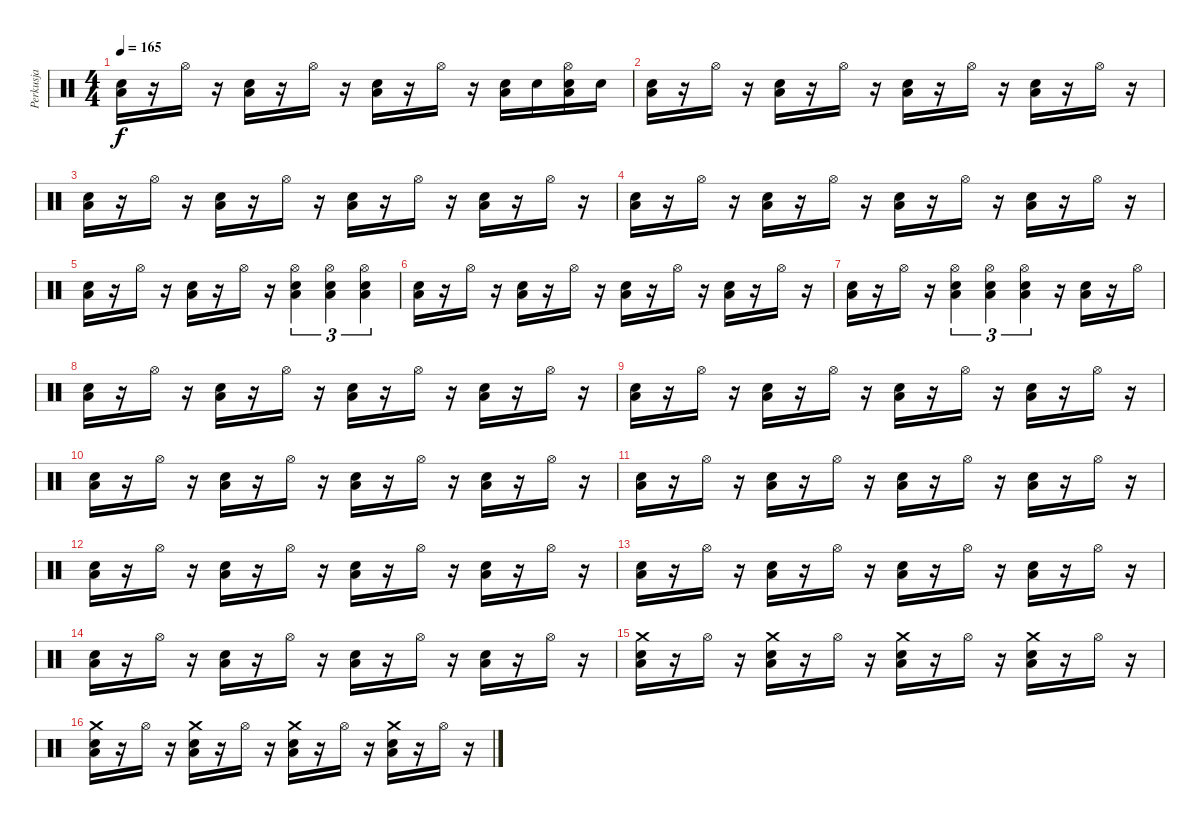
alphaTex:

\track ("Perkusja" "Perkusja") {instrument percussion}
\staff {score}
\articulation defaults
\ts (4 4)
\tempo 165
\clef neutral
\ks c
("Snare (hit) 2" "Low Tom (hit)").16{dy f} r.16 "Hi-Hat (open)".16 r.16 ("Snare (hit) 2" "Low Tom (hit)").16 r.16 "Hi-Hat (open)".16 r.16 ("Snare (hit) 2" "Low Tom (hit)").16 r.16 "Hi-Hat (open)".16 r.16 ("Snare (hit) 2" "Low Tom (hit)").16 "Snare (hit) 2".16 ("Snare (hit) 2" "Low Tom (hit)" "Hi-Hat (open)").16 "Snare (hit) 2".16 |
("Snare (hit) 2" "Low Tom (hit)").16 r.16 "Hi-Hat (open)".16 r.16 ("Snare (hit) 2" "Low Tom (hit)").16 r.16 "Hi-Hat (open)".16 r.16 ("Snare (hit) 2" "Low Tom (hit)").16 r.16 "Hi-Hat (open)".16 r.16 ("Snare (hit) 2" "Low Tom (hit)").16 r.16 "Hi-Hat (open)".16 r.16 |
("Snare (hit) 2" "Low Tom (hit)").16 r.16 "Hi-Hat (open)".16 r.16 ("Snare (hit) 2" "Low Tom (hit)").16 r.16 "Hi-Hat (open)".16 r.16 ("Snare (hit) 2" "Low Tom (hit)").16 r.16 "Hi-Hat (open)".16 r.16 ("Snare (hit) 2" "Low Tom (hit)").16 r.16 "Hi-Hat (open)".16 r.16 |
("Snare (hit) 2" "Low Tom (hit)").16 r.16 "Hi-Hat (open)".16 r.16 ("Snare (hit) 2" "Low Tom (hit)").16 r.16 "Hi-Hat (open)".16 r.16 ("Snare (hit) 2" "Low Tom (hit)").16 r.16 "Hi-Hat (open)".16 r.16 ("Snare (hit) 2" "Low Tom (hit)").16 r.16 "Hi-Hat (open)".16 r.16 |
("Snare (hit) 2" "Low Tom (hit)").16 r.16 "Hi-Hat (open)".16 r.16 ("Snare (hit) 2" "Low Tom (hit)").16 r.16 "Hi-Hat (open)".16 r.16 ("Snare (hit) 2" "Low Tom (hit)" "Hi-Hat (open)").4{tu (3 2)} ("Snare (hit) 2" "Low Tom (hit)" "Hi-Hat (open)").4{tu (3 2)} ("Snare (hit) 2" "Low Tom (hit)" "Hi-Hat (open)").4{tu (3 2)} |
("Snare (hit) 2" "Low Tom (hit)").16 r.16 "Hi-Hat (open)".16 r.16 ("Snare (hit) 2" "Low Tom (hit)").16 r.16 "Hi-Hat (open)".16 r.16 ("Snare (hit) 2" "Low Tom (hit)").16 r.16 "Hi-Hat (open)".16 r.16 ("Snare (hit) 2" "Low Tom (hit)").16 r.16 "Hi-Hat (open)".16 r.16 |
("Snare (hit) 2" "Low Tom (hit)").16 r.16 "Hi-Hat (open)".16 r.16 ("Snare (hit) 2" "Low Tom (hit)" "Hi-Hat (open)").4{tu (3 2)} ("Snare (hit) 2" "Low Tom (hit)" "Hi-Hat (open)").4{tu (3 2)} ("Snare (hit) 2" "Low Tom (hit)" "Hi-Hat (open)").4{tu (3 2)} r.16 ("Snare (hit) 2" "Low Tom (hit)").16 r.16 "Hi-Hat (open)".16 |
("Snare (hit) 2" "Low Tom (hit)").16 r.16 "Hi-Hat (open)".16 r.16 ("Snare (hit) 2" "Low Tom (hit)").16 r.16 "Hi-Hat (open)".16 r.16 ("Snare (hit) 2" "Low Tom (hit)").16 r.16 "Hi-Hat (open)".16 r.16 ("Snare (hit) 2" "Low Tom (hit)").16 r.16 "Hi-Hat (open)".16 r.16 |
("Snare (hit) 2" "Low Tom (hit)").16 r.16 "Hi-Hat (open)".16 r.16 ("Snare (hit) 2" "Low Tom (hit)").16 r.16 "Hi-Hat (open)".16 r.16 ("Snare (hit) 2" "Low Tom (hit)").16 r.16 "Hi-Hat (open)".16 r.16 ("Snare (hit) 2" "Low Tom (hit)").16 r.16 "Hi-Hat (open)".16 r.16 |
("Snare (hit) 2" "Low Tom (hit)").16 r.16 "Hi-Hat (open)".16 r.16 ("Snare (hit) 2" "Low Tom (hit)").16 r.16 "Hi-Hat (open)".16 r.16 ("Snare (hit) 2" "Low Tom (hit)").16 r.16 "Hi-Hat (open)".16 r.16 ("Snare (hit) 2" "Low Tom (hit)").16 r.16 "Hi-Hat (open)".16 r.16 |
("Snare (hit) 2" "Low Tom (hit)").16 r.16 "Hi-Hat (open)".16 r.16 ("Snare (hit) 2" "Low Tom (hit)").16 r.16 "Hi-Hat (open)".16 r.16 ("Snare (hit) 2" "Low Tom (hit)").16 r.16 "Hi-Hat (open)".16 r.16 ("Snare (hit) 2" "Low Tom (hit)").16 r.16 "Hi-Hat (open)".16 r.16 |
("Snare (hit) 2" "Low Tom (hit)").16 r.16 "Hi-Hat (open)".16 r.16 ("Snare (hit) 2" "Low Tom (hit)").16 r.16 "Hi-Hat (open)".16 r.16 ("Snare (hit) 2" "Low Tom (hit)").16 r.16 "Hi-Hat (open)".16 r.16 ("Snare (hit) 2" "Low Tom (hit)").16 r.16 "Hi-Hat (open)".16 r.16 |
("Snare (hit) 2" "Low Tom (hit)").16 r.16 "Hi-Hat (open)".16 r.16 ("Snare (hit) 2" "Low Tom (hit)").16 r.16 "Hi-Hat (open)".16 r.16 ("Snare (hit) 2" "Low Tom (hit)").16 r.16 "Hi-Hat (open)".16 r.16 ("Snare (hit) 2" "Low Tom (hit)").16 r.16 "Hi-Hat (open)".16 r.16 |
("Snare (hit) 2" "Low Tom (hit)").16 r.16 "Hi-Hat (open)".16 r.16 ("Snare (hit) 2" "Low Tom (hit)").16 r.16 "Hi-Hat (open)".16 r.16 ("Snare (hit) 2" "Low Tom (hit)").16 r.16 "Hi-Hat (open)".16 r.16 ("Snare (hit) 2" "Low Tom (hit)").16 r.16 "Hi-Hat (open)".16 r.16 |
("Snare (hit) 2" "Low Tom (hit)" "Crash medium (hit)").16 r.16 "Hi-Hat (open)".16 r.16 ("Snare (hit) 2" "Low Tom (hit)" "Crash medium (hit)").16 r.16 "Hi-Hat (open)".16 r.16 ("Snare (hit) 2" "Low Tom (hit)" "Crash medium (hit)").16 r.16 "Hi-Hat (open)".16 r.16 ("Snare (hit) 2" "Low Tom (hit)" "Crash medium (hit)").16 r.16 "Hi-Hat (open)".16 r.16 |
("Snare (hit) 2" "Low Tom (hit)" "Crash medium (hit)").16 r.16 "Hi-Hat (open)".16 r.16 ("Snare (hit) 2" "Low Tom (hit)" "Crash medium (hit)").16 r.16 "Hi-Hat (open)".16 r.16 ("Snare (hit) 2" "Low Tom (hit)" "Crash medium (hit)").16 r.16 "Hi-Hat (open)".16 r.16 ("Snare (hit) 2" "Low Tom (hit)" "Crash medium (hit)").16 r.16 "Hi-Hat (open)".16 r.16
